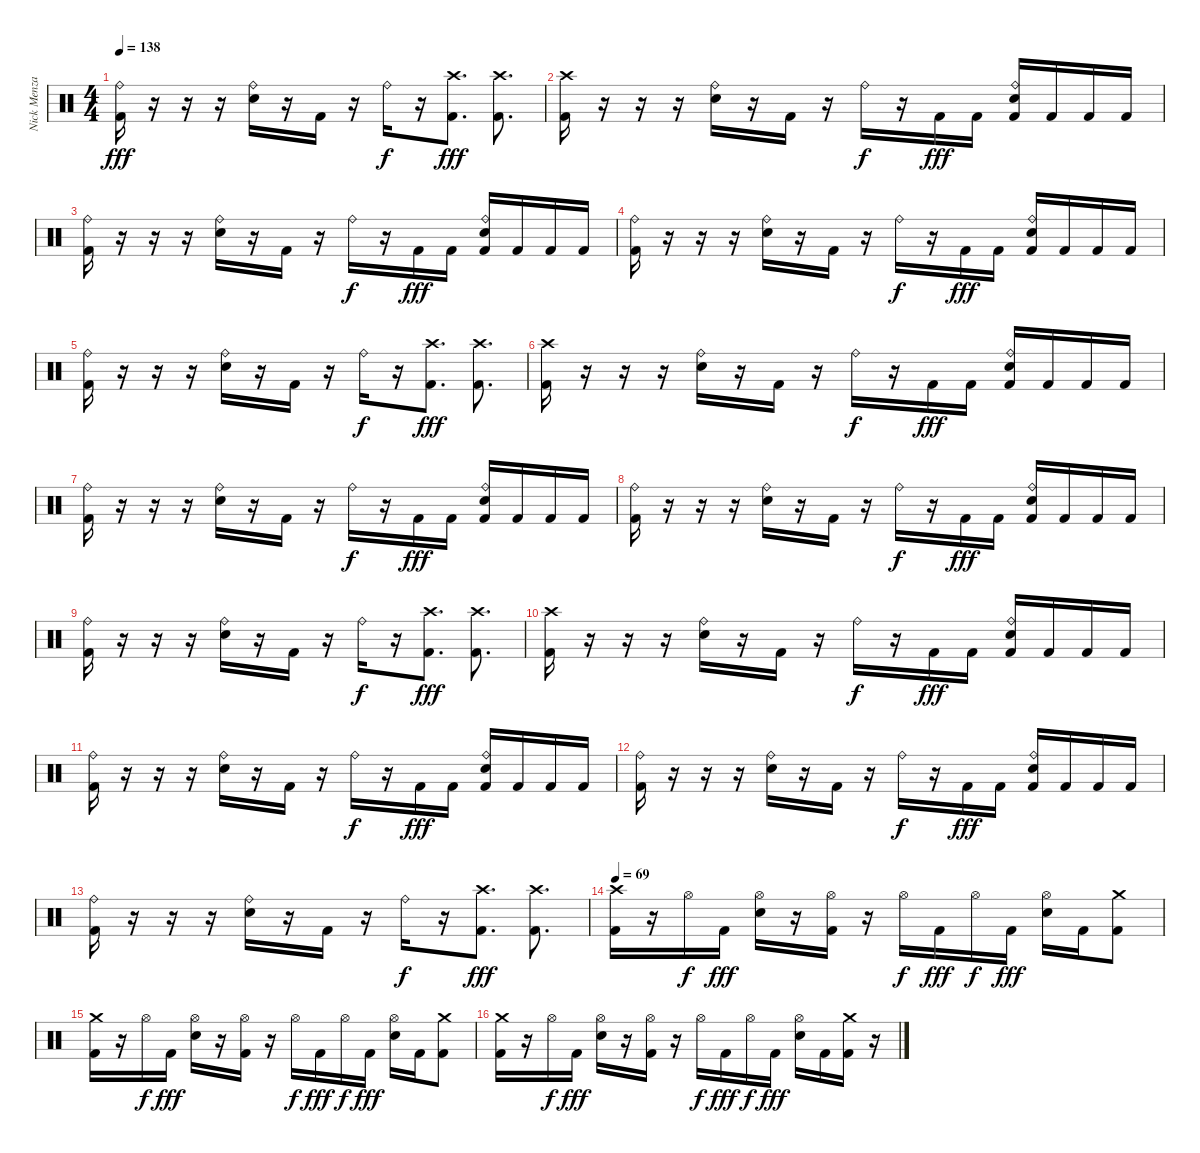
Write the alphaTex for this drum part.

\track ("Nick Menza" "Nick Menza") {instrument percussion}
\staff {score}
\articulation defaults
\ts (4 4)
\tempo 138
\clef neutral
\ks c
("Kick (hit) 2" "Ride (bell)").16{dy fff} r.16 r.16 r.16 ("Electric Snare (hit)" "Ride (bell)").16 r.16 "Kick (hit) 2".16 r.16 "Ride (bell)".16{dy f} r.16 ("Kick (hit) 2" "Crash high (hit)").8{d dy fff} ("Kick (hit) 2" "Crash high (hit)").8{d} |
("Kick (hit) 2" "Crash high (hit)").16 r.16 r.16 r.16 ("Electric Snare (hit)" "Ride (bell)").16 r.16 "Kick (hit) 2".16 r.16 "Ride (bell)".16{dy f} r.16 "Kick (hit) 2".16{dy fff} "Kick (hit) 2".16 ("Kick (hit) 2" "Electric Snare (hit)" "Ride (bell)").16 "Kick (hit) 2".16 "Kick (hit) 2".16 "Kick (hit) 2".16 |
("Kick (hit) 2" "Ride (bell)").16 r.16 r.16 r.16 ("Electric Snare (hit)" "Ride (bell)").16 r.16 "Kick (hit) 2".16 r.16 "Ride (bell)".16{dy f} r.16 "Kick (hit) 2".16{dy fff} "Kick (hit) 2".16 ("Kick (hit) 2" "Electric Snare (hit)" "Ride (bell)").16 "Kick (hit) 2".16 "Kick (hit) 2".16 "Kick (hit) 2".16 |
("Kick (hit) 2" "Ride (bell)").16 r.16 r.16 r.16 ("Electric Snare (hit)" "Ride (bell)").16 r.16 "Kick (hit) 2".16 r.16 "Ride (bell)".16{dy f} r.16 "Kick (hit) 2".16{dy fff} "Kick (hit) 2".16 ("Kick (hit) 2" "Electric Snare (hit)" "Ride (bell)").16 "Kick (hit) 2".16 "Kick (hit) 2".16 "Kick (hit) 2".16 |
("Kick (hit) 2" "Ride (bell)").16 r.16 r.16 r.16 ("Electric Snare (hit)" "Ride (bell)").16 r.16 "Kick (hit) 2".16 r.16 "Ride (bell)".16{dy f} r.16 ("Kick (hit) 2" "Crash high (hit)").8{d dy fff} ("Kick (hit) 2" "Crash high (hit)").8{d} |
("Kick (hit) 2" "Crash high (hit)").16 r.16 r.16 r.16 ("Electric Snare (hit)" "Ride (bell)").16 r.16 "Kick (hit) 2".16 r.16 "Ride (bell)".16{dy f} r.16 "Kick (hit) 2".16{dy fff} "Kick (hit) 2".16 ("Kick (hit) 2" "Electric Snare (hit)" "Ride (bell)").16 "Kick (hit) 2".16 "Kick (hit) 2".16 "Kick (hit) 2".16 |
("Kick (hit) 2" "Ride (bell)").16 r.16 r.16 r.16 ("Electric Snare (hit)" "Ride (bell)").16 r.16 "Kick (hit) 2".16 r.16 "Ride (bell)".16{dy f} r.16 "Kick (hit) 2".16{dy fff} "Kick (hit) 2".16 ("Kick (hit) 2" "Electric Snare (hit)" "Ride (bell)").16 "Kick (hit) 2".16 "Kick (hit) 2".16 "Kick (hit) 2".16 |
("Kick (hit) 2" "Ride (bell)").16 r.16 r.16 r.16 ("Electric Snare (hit)" "Ride (bell)").16 r.16 "Kick (hit) 2".16 r.16 "Ride (bell)".16{dy f} r.16 "Kick (hit) 2".16{dy fff} "Kick (hit) 2".16 ("Kick (hit) 2" "Electric Snare (hit)" "Ride (bell)").16 "Kick (hit) 2".16 "Kick (hit) 2".16 "Kick (hit) 2".16 |
("Kick (hit) 2" "Ride (bell)").16 r.16 r.16 r.16 ("Electric Snare (hit)" "Ride (bell)").16 r.16 "Kick (hit) 2".16 r.16 "Ride (bell)".16{dy f} r.16 ("Kick (hit) 2" "Crash high (hit)").8{d dy fff} ("Kick (hit) 2" "Crash high (hit)").8{d} |
("Kick (hit) 2" "Crash high (hit)").16 r.16 r.16 r.16 ("Electric Snare (hit)" "Ride (bell)").16 r.16 "Kick (hit) 2".16 r.16 "Ride (bell)".16{dy f} r.16 "Kick (hit) 2".16{dy fff} "Kick (hit) 2".16 ("Kick (hit) 2" "Electric Snare (hit)" "Ride (bell)").16 "Kick (hit) 2".16 "Kick (hit) 2".16 "Kick (hit) 2".16 |
("Kick (hit) 2" "Ride (bell)").16 r.16 r.16 r.16 ("Electric Snare (hit)" "Ride (bell)").16 r.16 "Kick (hit) 2".16 r.16 "Ride (bell)".16{dy f} r.16 "Kick (hit) 2".16{dy fff} "Kick (hit) 2".16 ("Kick (hit) 2" "Electric Snare (hit)" "Ride (bell)").16 "Kick (hit) 2".16 "Kick (hit) 2".16 "Kick (hit) 2".16 |
("Kick (hit) 2" "Ride (bell)").16 r.16 r.16 r.16 ("Electric Snare (hit)" "Ride (bell)").16 r.16 "Kick (hit) 2".16 r.16 "Ride (bell)".16{dy f} r.16 "Kick (hit) 2".16{dy fff} "Kick (hit) 2".16 ("Kick (hit) 2" "Electric Snare (hit)" "Ride (bell)").16 "Kick (hit) 2".16 "Kick (hit) 2".16 "Kick (hit) 2".16 |
("Kick (hit) 2" "Ride (bell)").16 r.16 r.16 r.16 ("Electric Snare (hit)" "Ride (bell)").16 r.16 "Kick (hit) 2".16 r.16 "Ride (bell)".16{dy f} r.16 ("Kick (hit) 2" "Crash high (hit)").8{d dy fff} ("Kick (hit) 2" "Crash high (hit)").8{d} |
\tempo 69
("Kick (hit) 2" "Crash high (hit)").16 r.16 "Hi-Hat (open)".16{dy f} "Kick (hit) 2".16{dy fff} ("Electric Snare (hit)" "Hi-Hat (open)").16 r.16 ("Kick (hit) 2" "Hi-Hat (open)").16 r.16 "Hi-Hat (open)".16{dy f} "Kick (hit) 2".16{dy fff} "Hi-Hat (open)".16{dy f} "Kick (hit) 2".16{dy fff} ("Electric Snare (hit)" "Hi-Hat (open)").16 "Kick (hit) 2".16 ("Kick (hit) 2" "Crash medium (hit)").8 |
("Kick (hit) 2" "Crash medium (hit)").16 r.16 "Hi-Hat (open)".16{dy f} "Kick (hit) 2".16{dy fff} ("Electric Snare (hit)" "Hi-Hat (open)").16 r.16 ("Kick (hit) 2" "Hi-Hat (open)").16 r.16 "Hi-Hat (open)".16{dy f} "Kick (hit) 2".16{dy fff} "Hi-Hat (open)".16{dy f} "Kick (hit) 2".16{dy fff} ("Electric Snare (hit)" "Hi-Hat (open)").16 "Kick (hit) 2".16 ("Kick (hit) 2" "Crash medium (hit)").8 |
("Kick (hit) 2" "Crash medium (hit)").16 r.16 "Hi-Hat (open)".16{dy f} "Kick (hit) 2".16{dy fff} ("Electric Snare (hit)" "Hi-Hat (open)").16 r.16 ("Kick (hit) 2" "Hi-Hat (open)").16 r.16 "Hi-Hat (open)".16{dy f} "Kick (hit) 2".16{dy fff} "Hi-Hat (open)".16{dy f} "Kick (hit) 2".16{dy fff} ("Electric Snare (hit)" "Hi-Hat (open)").16 "Kick (hit) 2".16 ("Kick (hit) 2" "Crash medium (hit)").16 r.16
